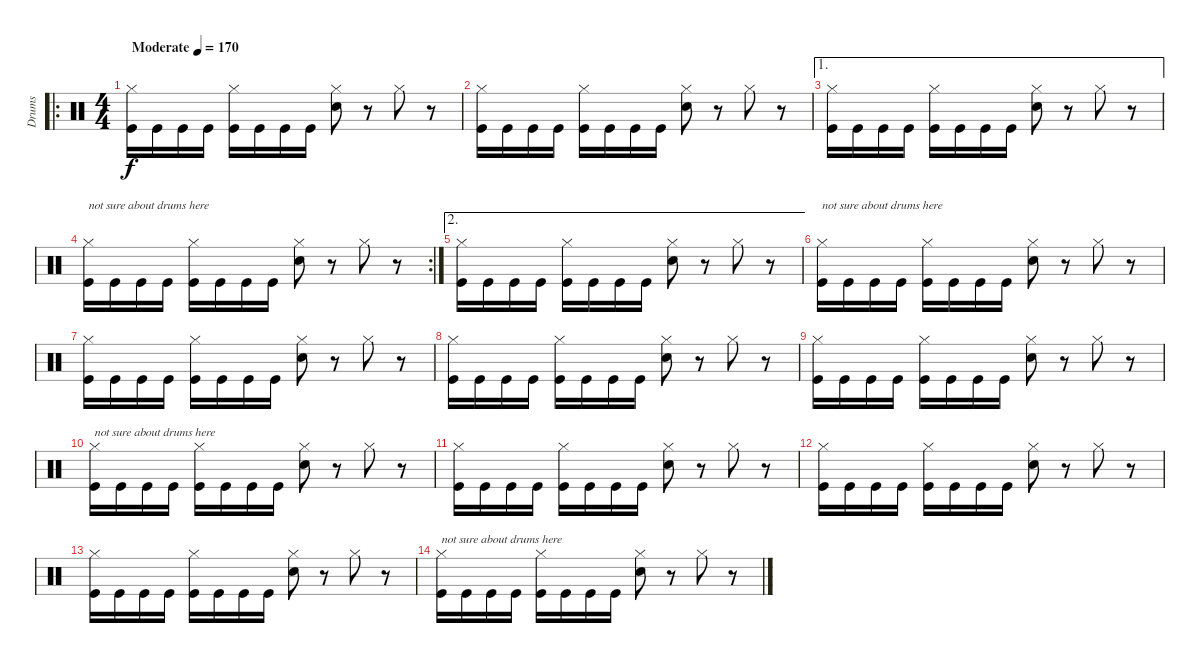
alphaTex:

\track ("Drums" "Drums") {instrument percussion}
\staff {score}
\articulation defaults
\ro
\ts (4 4)
\tempo (170 "Moderate")
\clef neutral
\ks c
("Hi-Hat (closed)" "Kick (hit)").16{dy f} "Kick (hit)".16 "Kick (hit)".16 "Kick (hit)".16 ("Hi-Hat (closed)" "Kick (hit)").16 "Kick (hit)".16 "Kick (hit)".16 "Kick (hit)".16 ("Hi-Hat (closed)" "Snare (hit) 2").8 r.8 "Hi-Hat (closed)".8 r.8 |
("Hi-Hat (closed)" "Kick (hit)").16 "Kick (hit)".16 "Kick (hit)".16 "Kick (hit)".16 ("Hi-Hat (closed)" "Kick (hit)").16 "Kick (hit)".16 "Kick (hit)".16 "Kick (hit)".16 ("Hi-Hat (closed)" "Snare (hit) 2").8 r.8 "Hi-Hat (closed)".8 r.8 |
\ae 1
("Hi-Hat (closed)" "Kick (hit)").16 "Kick (hit)".16 "Kick (hit)".16 "Kick (hit)".16 ("Hi-Hat (closed)" "Kick (hit)").16 "Kick (hit)".16 "Kick (hit)".16 "Kick (hit)".16 ("Hi-Hat (closed)" "Snare (hit) 2").8 r.8 "Hi-Hat (closed)".8 r.8 |
\rc 2
("Hi-Hat (closed)" "Kick (hit)").16{txt "not sure about drums here"} "Kick (hit)".16 "Kick (hit)".16 "Kick (hit)".16 ("Hi-Hat (closed)" "Kick (hit)").16 "Kick (hit)".16 "Kick (hit)".16 "Kick (hit)".16 ("Hi-Hat (closed)" "Snare (hit) 2").8 r.8 "Hi-Hat (closed)".8 r.8 |
\ae 2
("Hi-Hat (closed)" "Kick (hit)").16 "Kick (hit)".16 "Kick (hit)".16 "Kick (hit)".16 ("Hi-Hat (closed)" "Kick (hit)").16 "Kick (hit)".16 "Kick (hit)".16 "Kick (hit)".16 ("Hi-Hat (closed)" "Snare (hit) 2").8 r.8 "Hi-Hat (closed)".8 r.8 |
("Hi-Hat (closed)" "Kick (hit)").16{txt "not sure about drums here"} "Kick (hit)".16 "Kick (hit)".16 "Kick (hit)".16 ("Hi-Hat (closed)" "Kick (hit)").16 "Kick (hit)".16 "Kick (hit)".16 "Kick (hit)".16 ("Hi-Hat (closed)" "Snare (hit) 2").8 r.8 "Hi-Hat (closed)".8 r.8 |
("Hi-Hat (closed)" "Kick (hit)").16 "Kick (hit)".16 "Kick (hit)".16 "Kick (hit)".16 ("Hi-Hat (closed)" "Kick (hit)").16 "Kick (hit)".16 "Kick (hit)".16 "Kick (hit)".16 ("Hi-Hat (closed)" "Snare (hit) 2").8 r.8 "Hi-Hat (closed)".8 r.8 |
("Hi-Hat (closed)" "Kick (hit)").16 "Kick (hit)".16 "Kick (hit)".16 "Kick (hit)".16 ("Hi-Hat (closed)" "Kick (hit)").16 "Kick (hit)".16 "Kick (hit)".16 "Kick (hit)".16 ("Hi-Hat (closed)" "Snare (hit) 2").8 r.8 "Hi-Hat (closed)".8 r.8 |
("Hi-Hat (closed)" "Kick (hit)").16 "Kick (hit)".16 "Kick (hit)".16 "Kick (hit)".16 ("Hi-Hat (closed)" "Kick (hit)").16 "Kick (hit)".16 "Kick (hit)".16 "Kick (hit)".16 ("Hi-Hat (closed)" "Snare (hit) 2").8 r.8 "Hi-Hat (closed)".8 r.8 |
("Hi-Hat (closed)" "Kick (hit)").16{txt "not sure about drums here"} "Kick (hit)".16 "Kick (hit)".16 "Kick (hit)".16 ("Hi-Hat (closed)" "Kick (hit)").16 "Kick (hit)".16 "Kick (hit)".16 "Kick (hit)".16 ("Hi-Hat (closed)" "Snare (hit) 2").8 r.8 "Hi-Hat (closed)".8 r.8 |
("Hi-Hat (closed)" "Kick (hit)").16 "Kick (hit)".16 "Kick (hit)".16 "Kick (hit)".16 ("Hi-Hat (closed)" "Kick (hit)").16 "Kick (hit)".16 "Kick (hit)".16 "Kick (hit)".16 ("Hi-Hat (closed)" "Snare (hit) 2").8 r.8 "Hi-Hat (closed)".8 r.8 |
("Hi-Hat (closed)" "Kick (hit)").16 "Kick (hit)".16 "Kick (hit)".16 "Kick (hit)".16 ("Hi-Hat (closed)" "Kick (hit)").16 "Kick (hit)".16 "Kick (hit)".16 "Kick (hit)".16 ("Hi-Hat (closed)" "Snare (hit) 2").8 r.8 "Hi-Hat (closed)".8 r.8 |
("Hi-Hat (closed)" "Kick (hit)").16 "Kick (hit)".16 "Kick (hit)".16 "Kick (hit)".16 ("Hi-Hat (closed)" "Kick (hit)").16 "Kick (hit)".16 "Kick (hit)".16 "Kick (hit)".16 ("Hi-Hat (closed)" "Snare (hit) 2").8 r.8 "Hi-Hat (closed)".8 r.8 |
("Hi-Hat (closed)" "Kick (hit)").16{txt "not sure about drums here"} "Kick (hit)".16 "Kick (hit)".16 "Kick (hit)".16 ("Hi-Hat (closed)" "Kick (hit)").16 "Kick (hit)".16 "Kick (hit)".16 "Kick (hit)".16 ("Hi-Hat (closed)" "Snare (hit) 2").8 r.8 "Hi-Hat (closed)".8 r.8
